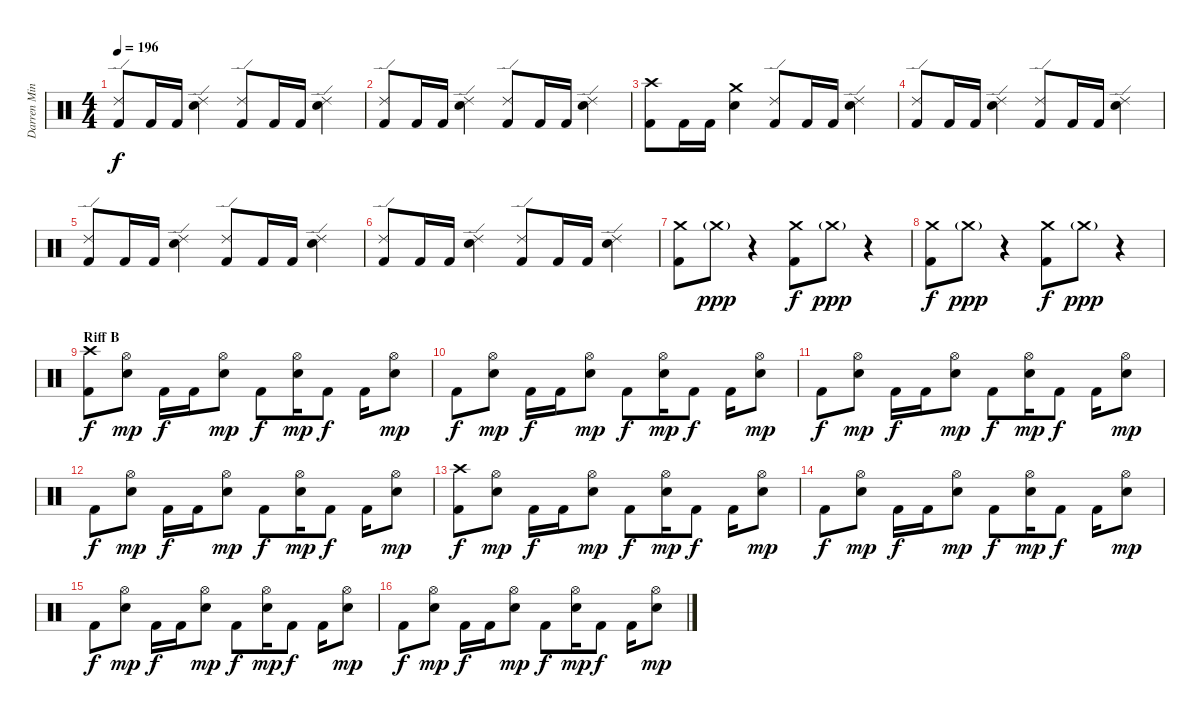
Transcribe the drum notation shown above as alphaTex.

\track ("Darren Minter" "Darren Min") {instrument percussion}
\staff {score}
\articulation defaults
\ts (4 4)
\tempo 196
\clef neutral
\ks c
("Kick (hit) 2" "Ride (edge) 2").8{dy f} "Kick (hit) 2".16 "Kick (hit) 2".16 ("Ride (edge) 2" "Snare (hit) 2").4 ("Kick (hit) 2" "Ride (edge) 2").8 "Kick (hit) 2".16 "Kick (hit) 2".16 ("Ride (edge) 2" "Snare (hit) 2").4 |
("Kick (hit) 2" "Ride (edge) 2").8 "Kick (hit) 2".16 "Kick (hit) 2".16 ("Ride (edge) 2" "Snare (hit) 2").4 ("Kick (hit) 2" "Ride (edge) 2").8 "Kick (hit) 2".16 "Kick (hit) 2".16 ("Ride (edge) 2" "Snare (hit) 2").4 |
("Kick (hit) 2" "Crash high (hit)").8 "Kick (hit) 2".16 "Kick (hit) 2".16 ("Crash medium (hit)" "Snare (hit) 2").4 ("Kick (hit) 2" "Ride (edge) 2").8 "Kick (hit) 2".16 "Kick (hit) 2".16 ("Ride (edge) 2" "Snare (hit) 2").4 |
("Kick (hit) 2" "Ride (edge) 2").8 "Kick (hit) 2".16 "Kick (hit) 2".16 ("Ride (edge) 2" "Snare (hit) 2").4 ("Kick (hit) 2" "Ride (edge) 2").8 "Kick (hit) 2".16 "Kick (hit) 2".16 ("Ride (edge) 2" "Snare (hit) 2").4 |
("Kick (hit) 2" "Ride (edge) 2").8 "Kick (hit) 2".16 "Kick (hit) 2".16 ("Ride (edge) 2" "Snare (hit) 2").4 ("Kick (hit) 2" "Ride (edge) 2").8 "Kick (hit) 2".16 "Kick (hit) 2".16 ("Ride (edge) 2" "Snare (hit) 2").4 |
("Kick (hit) 2" "Ride (edge) 2").8 "Kick (hit) 2".16 "Kick (hit) 2".16 ("Ride (edge) 2" "Snare (hit) 2").4 ("Kick (hit) 2" "Ride (edge) 2").8 "Kick (hit) 2".16 "Kick (hit) 2".16 ("Ride (edge) 2" "Snare (hit) 2").4 |
("Kick (hit) 2" "Crash medium (hit)").8 "Crash medium (hit)"{g}.8{dy ppp} r.4 ("Kick (hit) 2" "Crash medium (hit)").8{dy f} "Crash medium (hit)"{g}.8{dy ppp} r.4 |
("Kick (hit) 2" "Crash medium (hit)").8{dy f} "Crash medium (hit)"{g}.8{dy ppp} r.4 ("Kick (hit) 2" "Crash medium (hit)").8{dy f} "Crash medium (hit)"{g}.8{dy ppp} r.4 |
\section ("" "Riff B")
("Kick (hit) 2" "Crash high (hit)").8{dy f} ("Hi-Hat (open)" "Snare (hit) 2").8{dy mp} "Kick (hit) 2".16{dy f} "Kick (hit) 2".16 ("Hi-Hat (open)" "Snare (hit) 2").8{dy mp} "Kick (hit) 2".8{dy f} ("Hi-Hat (open)" "Snare (hit) 2").16{dy mp} "Kick (hit) 2".8{dy f} "Kick (hit) 2".16 ("Hi-Hat (open)" "Snare (hit) 2").8{dy mp} |
"Kick (hit) 2".8{dy f} ("Hi-Hat (open)" "Snare (hit) 2").8{dy mp} "Kick (hit) 2".16{dy f} "Kick (hit) 2".16 ("Hi-Hat (open)" "Snare (hit) 2").8{dy mp} "Kick (hit) 2".8{dy f} ("Hi-Hat (open)" "Snare (hit) 2").16{dy mp} "Kick (hit) 2".8{dy f} "Kick (hit) 2".16 ("Hi-Hat (open)" "Snare (hit) 2").8{dy mp} |
"Kick (hit) 2".8{dy f} ("Hi-Hat (open)" "Snare (hit) 2").8{dy mp} "Kick (hit) 2".16{dy f} "Kick (hit) 2".16 ("Hi-Hat (open)" "Snare (hit) 2").8{dy mp} "Kick (hit) 2".8{dy f} ("Hi-Hat (open)" "Snare (hit) 2").16{dy mp} "Kick (hit) 2".8{dy f} "Kick (hit) 2".16 ("Hi-Hat (open)" "Snare (hit) 2").8{dy mp} |
"Kick (hit) 2".8{dy f} ("Hi-Hat (open)" "Snare (hit) 2").8{dy mp} "Kick (hit) 2".16{dy f} "Kick (hit) 2".16 ("Hi-Hat (open)" "Snare (hit) 2").8{dy mp} "Kick (hit) 2".8{dy f} ("Hi-Hat (open)" "Snare (hit) 2").16{dy mp} "Kick (hit) 2".8{dy f} "Kick (hit) 2".16 ("Hi-Hat (open)" "Snare (hit) 2").8{dy mp} |
("Kick (hit) 2" "Crash high (hit)").8{dy f} ("Hi-Hat (open)" "Snare (hit) 2").8{dy mp} "Kick (hit) 2".16{dy f} "Kick (hit) 2".16 ("Hi-Hat (open)" "Snare (hit) 2").8{dy mp} "Kick (hit) 2".8{dy f} ("Hi-Hat (open)" "Snare (hit) 2").16{dy mp} "Kick (hit) 2".8{dy f} "Kick (hit) 2".16 ("Hi-Hat (open)" "Snare (hit) 2").8{dy mp} |
"Kick (hit) 2".8{dy f} ("Hi-Hat (open)" "Snare (hit) 2").8{dy mp} "Kick (hit) 2".16{dy f} "Kick (hit) 2".16 ("Hi-Hat (open)" "Snare (hit) 2").8{dy mp} "Kick (hit) 2".8{dy f} ("Hi-Hat (open)" "Snare (hit) 2").16{dy mp} "Kick (hit) 2".8{dy f} "Kick (hit) 2".16 ("Hi-Hat (open)" "Snare (hit) 2").8{dy mp} |
"Kick (hit) 2".8{dy f} ("Hi-Hat (open)" "Snare (hit) 2").8{dy mp} "Kick (hit) 2".16{dy f} "Kick (hit) 2".16 ("Hi-Hat (open)" "Snare (hit) 2").8{dy mp} "Kick (hit) 2".8{dy f} ("Hi-Hat (open)" "Snare (hit) 2").16{dy mp} "Kick (hit) 2".8{dy f} "Kick (hit) 2".16 ("Hi-Hat (open)" "Snare (hit) 2").8{dy mp} |
"Kick (hit) 2".8{dy f} ("Hi-Hat (open)" "Snare (hit) 2").8{dy mp} "Kick (hit) 2".16{dy f} "Kick (hit) 2".16 ("Hi-Hat (open)" "Snare (hit) 2").8{dy mp} "Kick (hit) 2".8{dy f} ("Hi-Hat (open)" "Snare (hit) 2").16{dy mp} "Kick (hit) 2".8{dy f} "Kick (hit) 2".16 ("Hi-Hat (open)" "Snare (hit) 2").8{dy mp}
